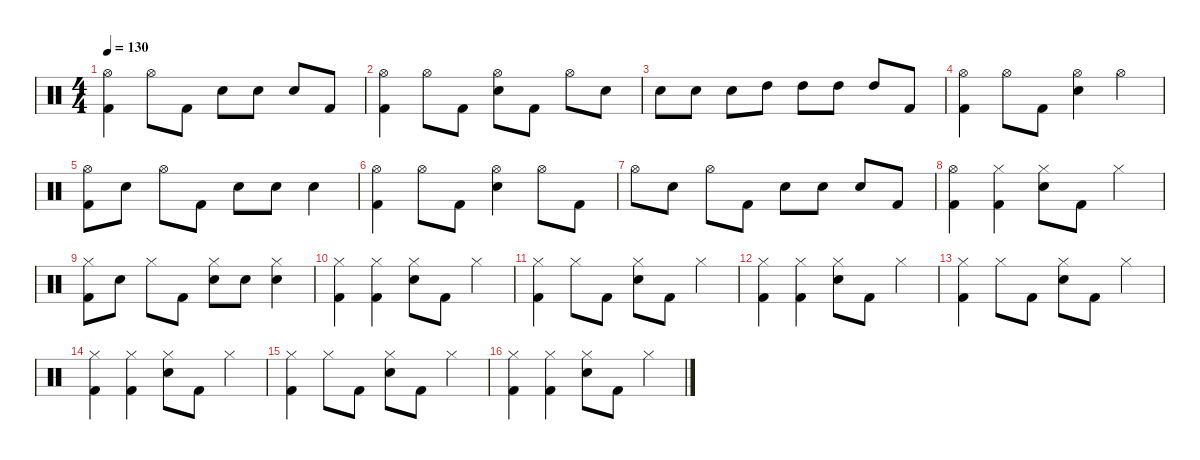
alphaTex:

\defaultSystemsLayout 4
\hideDynamics
\bracketExtendMode nobrackets
\singleTrackTrackNamePolicy hidden
\multiTrackTrackNamePolicy hidden
\firstSystemTrackNameMode fullname
\firstSystemTrackNameOrientation horizontal
\otherSystemsTrackNameOrientation horizontal
\track ("Bill Ward" "drm.") {instrument percussion}
\staff {score}
\articulation defaults
\ts (4 4)
\tempo 130
\clef neutral
\ks c
("Hi-Hat (open)" "Kick (hit) 2").4{dy f beam Down} "Hi-Hat (open)".8{beam Down} "Kick (hit) 2".8{beam Down} "Snare (hit) 2".8{beam Down} "Snare (hit) 2".8{beam Down} "Snare (hit) 2".8{beam Up} "Kick (hit) 2".8{beam Up} |
("Hi-Hat (open)" "Kick (hit) 2").4{beam Down} "Hi-Hat (open)".8{beam Down} "Kick (hit) 2".8{beam Down} ("Hi-Hat (open)" "Snare (hit) 2").8{beam Down} "Kick (hit) 2".8{beam Down} "Hi-Hat (open)".8{beam Down} "Snare (hit) 2".8{beam Down} |
"Snare (hit) 2".8{beam Down} "Snare (hit) 2".8{beam Down} "Snare (hit) 2".8{beam Down} "High Tom (hit)".8{beam Down} "High Tom (hit)".8{beam Down} "High Tom (hit)".8{beam Down} "High Tom (hit)".8{beam Up} "Kick (hit) 2".8{beam Up} |
("Hi-Hat (open)" "Kick (hit) 2").4{beam Down} "Hi-Hat (open)".8{beam Down} "Kick (hit) 2".8{beam Down} ("Hi-Hat (open)" "Snare (hit) 2").4{beam Down} "Hi-Hat (open)".4{beam Down} |
("Hi-Hat (open)" "Kick (hit) 2").8{beam Down} "Snare (hit) 2".8{beam Down} "Hi-Hat (open)".8{beam Down} "Kick (hit) 2".8{beam Down} "Snare (hit) 2".8{beam Down} "Snare (hit) 2".8{beam Down} "Snare (hit) 2".4{beam Down} |
("Hi-Hat (open)" "Kick (hit) 2").4{beam Down} "Hi-Hat (open)".8{beam Down} "Kick (hit) 2".8{beam Down} ("Hi-Hat (open)" "Snare (hit) 2").4{beam Down} "Hi-Hat (open)".8{beam Down} "Kick (hit) 2".8{beam Down} |
"Hi-Hat (open)".8{beam Down} "Snare (hit) 2".8{beam Down} "Hi-Hat (open)".8{beam Down} "Kick (hit) 2".8{beam Down} "Snare (hit) 2".8{beam Down} "Snare (hit) 2".8{beam Down} "Snare (hit) 2".8{beam Up} "Kick (hit) 2".8{beam Up} |
("Hi-Hat (open)" "Kick (hit) 2").4{beam Down} ("Hi-Hat (closed)" "Kick (hit) 2").4{beam Down} ("Hi-Hat (closed)" "Snare (hit) 2").8{beam Down} "Kick (hit) 2".8{beam Down} "Hi-Hat (closed)".4{beam Down} |
("Hi-Hat (closed)" "Kick (hit) 2").8{beam Down} "Snare (hit) 2".8{beam Down} "Hi-Hat (closed)".8{beam Down} "Kick (hit) 2".8{beam Down} ("Hi-Hat (closed)" "Snare (hit) 2").8{beam Down} "Snare (hit) 2".8{beam Down} ("Hi-Hat (closed)" "Snare (hit) 2").4{beam Down} |
("Hi-Hat (closed)" "Kick (hit) 2").4{beam Down} ("Hi-Hat (closed)" "Kick (hit) 2").4{beam Down} ("Hi-Hat (closed)" "Snare (hit) 2").8{beam Down} "Kick (hit) 2".8{beam Down} "Hi-Hat (closed)".4{beam Down} |
("Hi-Hat (closed)" "Kick (hit) 2").4{beam Down} "Hi-Hat (closed)".8{beam Down} "Kick (hit) 2".8{beam Down} ("Hi-Hat (closed)" "Snare (hit) 2").8{beam Down} "Kick (hit) 2".8{beam Down} "Hi-Hat (closed)".4{beam Down} |
("Hi-Hat (closed)" "Kick (hit) 2").4{beam Down} ("Hi-Hat (closed)" "Kick (hit) 2").4{beam Down} ("Hi-Hat (closed)" "Snare (hit) 2").8{beam Down} "Kick (hit) 2".8{beam Down} "Hi-Hat (closed)".4{beam Down} |
("Hi-Hat (closed)" "Kick (hit) 2").4{beam Down} "Hi-Hat (closed)".8{beam Down} "Kick (hit) 2".8{beam Down} ("Hi-Hat (closed)" "Snare (hit) 2").8{beam Down} "Kick (hit) 2".8{beam Down} "Hi-Hat (closed)".4{beam Down} |
("Hi-Hat (closed)" "Kick (hit) 2").4{beam Down} ("Hi-Hat (closed)" "Kick (hit) 2").4{beam Down} ("Hi-Hat (closed)" "Snare (hit) 2").8{beam Down} "Kick (hit) 2".8{beam Down} "Hi-Hat (closed)".4{beam Down} |
("Hi-Hat (closed)" "Kick (hit) 2").4{beam Down} "Hi-Hat (closed)".8{beam Down} "Kick (hit) 2".8{beam Down} ("Hi-Hat (closed)" "Snare (hit) 2").8{beam Down} "Kick (hit) 2".8{beam Down} "Hi-Hat (closed)".4{beam Down} |
("Hi-Hat (closed)" "Kick (hit) 2").4{beam Down} ("Hi-Hat (closed)" "Kick (hit) 2").4{beam Down} ("Hi-Hat (closed)" "Snare (hit) 2").8{beam Down} "Kick (hit) 2".8{beam Down} "Hi-Hat (closed)".4{beam Down}
